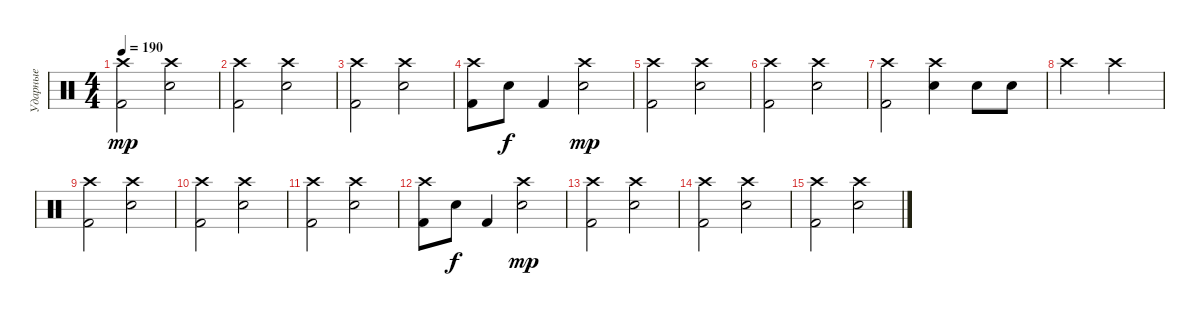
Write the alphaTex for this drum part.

\track ("Ударные" "Ударные") {instrument percussion}
\staff {score}
\articulation defaults
\ts (4 4)
\tempo 190
\clef neutral
\ks c
("Crash high (hit)" "Kick (hit) 2").2{dy mp} ("Crash high (hit)" "Snare (hit) 2").2 |
("Crash high (hit)" "Kick (hit) 2").2 ("Crash high (hit)" "Snare (hit) 2").2 |
("Crash high (hit)" "Kick (hit) 2").2 ("Crash high (hit)" "Snare (hit) 2").2 |
("Crash high (hit)" "Kick (hit) 2").8 "Snare (hit) 2".8{dy f} "Kick (hit) 2".4 ("Crash high (hit)" "Snare (hit) 2").2{dy mp} |
("Crash high (hit)" "Kick (hit) 2").2 ("Crash high (hit)" "Snare (hit) 2").2 |
("Crash high (hit)" "Kick (hit) 2").2 ("Crash high (hit)" "Snare (hit) 2").2 |
("Crash high (hit)" "Kick (hit) 2").2 ("Crash high (hit)" "Snare (hit) 2").4 "Snare (hit) 2".8 "Snare (hit) 2".8 |
"Crash high (hit)".2 "Crash high (hit)".2 |
("Crash high (hit)" "Kick (hit) 2").2 ("Crash high (hit)" "Snare (hit) 2").2 |
("Crash high (hit)" "Kick (hit) 2").2 ("Crash high (hit)" "Snare (hit) 2").2 |
("Crash high (hit)" "Kick (hit) 2").2 ("Crash high (hit)" "Snare (hit) 2").2 |
("Crash high (hit)" "Kick (hit) 2").8 "Snare (hit) 2".8{dy f} "Kick (hit) 2".4 ("Crash high (hit)" "Snare (hit) 2").2{dy mp} |
("Crash high (hit)" "Kick (hit) 2").2 ("Crash high (hit)" "Snare (hit) 2").2 |
("Crash high (hit)" "Kick (hit) 2").2 ("Crash high (hit)" "Snare (hit) 2").2 |
("Crash high (hit)" "Kick (hit) 2").2 ("Crash high (hit)" "Snare (hit) 2").2
